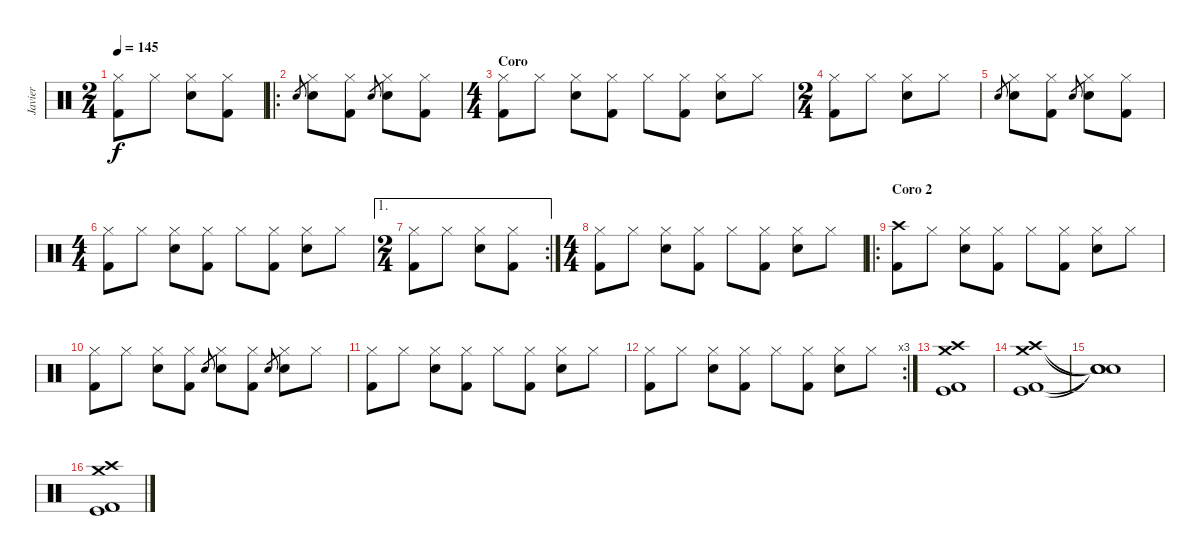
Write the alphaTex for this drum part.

\track ("Javier" "Javier") {instrument percussion}
\staff {score}
\articulation defaults
\ts (2 4)
\tempo 145
\clef neutral
\ks c
("Hi-Hat (closed)" "Kick (hit) 2").8{dy f} "Hi-Hat (closed)".8 ("Hi-Hat (closed)" "Snare (hit) 2").8 ("Hi-Hat (closed)" "Kick (hit) 2").8 |
\ro "Snare (hit) 2".8{gr}
("Hi-Hat (closed)" "Snare (hit) 2").8 ("Hi-Hat (closed)" "Kick (hit) 2").8 "Snare (hit) 2".8{gr} ("Hi-Hat (closed)" "Snare (hit) 2").8 ("Hi-Hat (closed)" "Kick (hit) 2").8 |
\ts (4 4)
\section ("" "Coro")
("Hi-Hat (closed)" "Kick (hit) 2").8 "Hi-Hat (closed)".8 ("Hi-Hat (closed)" "Snare (hit) 2").8 ("Hi-Hat (closed)" "Kick (hit) 2").8 "Hi-Hat (closed)".8 ("Hi-Hat (closed)" "Kick (hit) 2").8 ("Hi-Hat (closed)" "Snare (hit) 2").8 "Hi-Hat (closed)".8 |
\ts (2 4)
("Hi-Hat (closed)" "Kick (hit) 2").8 "Hi-Hat (closed)".8 ("Hi-Hat (closed)" "Snare (hit) 2").8 "Hi-Hat (closed)".8 |
"Snare (hit) 2".8{gr} ("Hi-Hat (closed)" "Snare (hit) 2").8 ("Hi-Hat (closed)" "Kick (hit) 2").8 "Snare (hit) 2".8{gr} ("Hi-Hat (closed)" "Snare (hit) 2").8 ("Hi-Hat (closed)" "Kick (hit) 2").8 |
\ts (4 4)
("Hi-Hat (closed)" "Kick (hit) 2").8 "Hi-Hat (closed)".8 ("Hi-Hat (closed)" "Snare (hit) 2").8 ("Hi-Hat (closed)" "Kick (hit) 2").8 "Hi-Hat (closed)".8 ("Hi-Hat (closed)" "Kick (hit) 2").8 ("Hi-Hat (closed)" "Snare (hit) 2").8 "Hi-Hat (closed)".8 |
\ae 1
\rc 2
\ts (2 4)
("Hi-Hat (closed)" "Kick (hit) 2").8 "Hi-Hat (closed)".8 ("Hi-Hat (closed)" "Snare (hit) 2").8 ("Hi-Hat (closed)" "Kick (hit) 2").8 |
\ts (4 4)
("Hi-Hat (closed)" "Kick (hit) 2").8 "Hi-Hat (closed)".8 ("Hi-Hat (closed)" "Snare (hit) 2").8 ("Hi-Hat (closed)" "Kick (hit) 2").8 "Hi-Hat (closed)".8 ("Hi-Hat (closed)" "Kick (hit) 2").8 ("Hi-Hat (closed)" "Snare (hit) 2").8 "Hi-Hat (closed)".8 |
\ro
\section ("" "Coro 2")
("Crash high (hit)" "Kick (hit) 2").8 "Hi-Hat (closed)".8 ("Hi-Hat (closed)" "Snare (hit) 2").8 ("Hi-Hat (closed)" "Kick (hit) 2").8 "Hi-Hat (closed)".8 ("Hi-Hat (closed)" "Kick (hit) 2").8 ("Hi-Hat (closed)" "Snare (hit) 2").8 "Hi-Hat (closed)".8 |
("Hi-Hat (closed)" "Kick (hit) 2").8 "Hi-Hat (closed)".8 ("Hi-Hat (closed)" "Snare (hit) 2").8 ("Hi-Hat (closed)" "Kick (hit) 2").8 "Snare (hit) 2".8{gr} ("Hi-Hat (closed)" "Snare (hit) 2").8 ("Hi-Hat (closed)" "Kick (hit) 2").8 "Snare (hit) 2".8{gr} ("Hi-Hat (closed)" "Snare (hit) 2").8 "Hi-Hat (closed)".8 |
("Hi-Hat (closed)" "Kick (hit) 2").8 "Hi-Hat (closed)".8 ("Hi-Hat (closed)" "Snare (hit) 2").8 ("Hi-Hat (closed)" "Kick (hit) 2").8 "Hi-Hat (closed)".8 ("Hi-Hat (closed)" "Kick (hit) 2").8 ("Hi-Hat (closed)" "Snare (hit) 2").8 "Hi-Hat (closed)".8 |
\rc 3
("Hi-Hat (closed)" "Kick (hit) 2").8 "Hi-Hat (closed)".8 ("Hi-Hat (closed)" "Snare (hit) 2").8 ("Hi-Hat (closed)" "Kick (hit) 2").8 "Hi-Hat (closed)".8 ("Hi-Hat (closed)" "Kick (hit) 2").8 ("Hi-Hat (closed)" "Snare (hit) 2").8 "Hi-Hat (closed)".8 |
("Crash high (hit)" "Crash medium (hit)" "Kick (hit) 2" "Kick (hit)").1 |
("Crash high (hit)" "Crash medium (hit)" "Kick (hit) 2" "Kick (hit)").1 |
("Snare (hit)"{t} "Snare (hit)"{t} "Snare (hit)"{t} "Snare (hit)"{t}).1 |
("Crash high (hit)" "Crash medium (hit)" "Kick (hit) 2" "Kick (hit)").1
